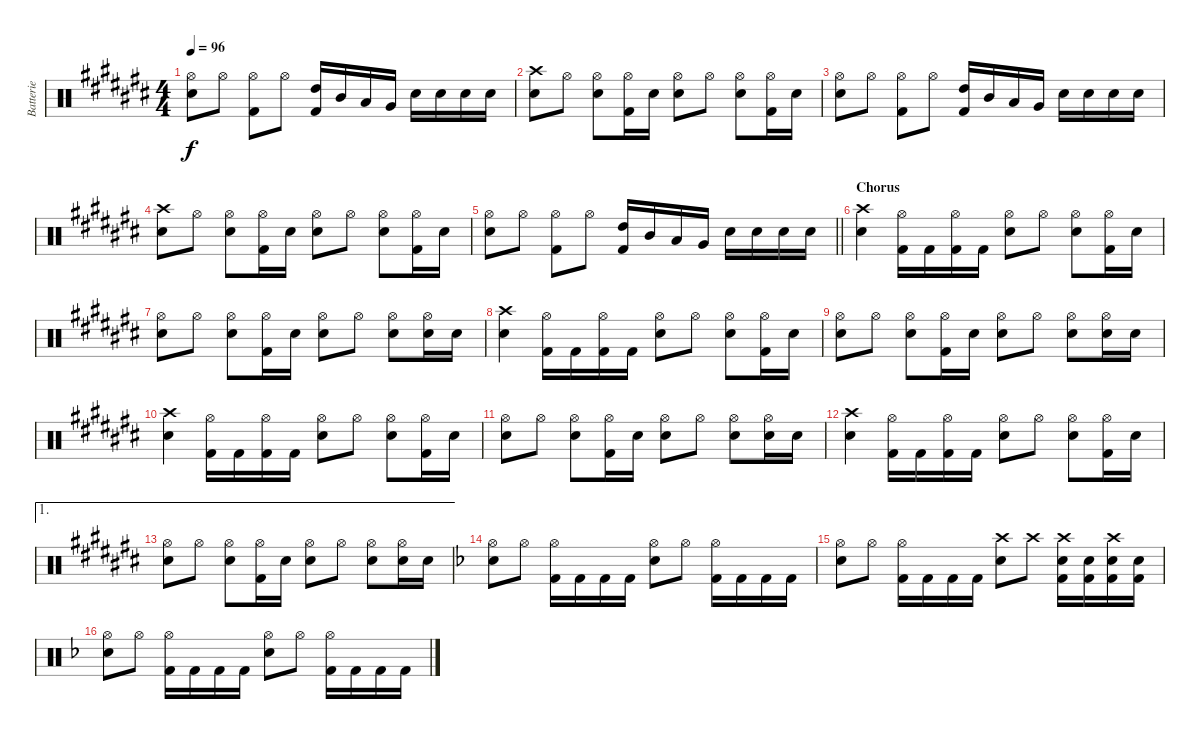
\track ("Batterie" "Batterie") {instrument percussion}
\staff {score}
\articulation defaults
\ts (4 4)
\tempo 96
\clef neutral
\ks c#
("Hi-Hat (open)" "Snare (hit) 2").8{dy f} "Hi-Hat (open)".8 ("Hi-Hat (open)" "Kick (hit) 2").8 "Hi-Hat (open)".8 ("High Tom (hit)" "Kick (hit) 2").16 "Mid Tom (hit)".16 "Low Tom (hit)".16 "Very Low Tom (hit)".16 "Snare (hit) 2".16 "Snare (hit) 2".16 "Snare (hit) 2".16 "Snare (hit) 2".16 |
("Crash high (hit)" "Snare (hit) 2").8 "Hi-Hat (open)".8 ("Hi-Hat (open)" "Snare (hit) 2").8 ("Hi-Hat (open)" "Kick (hit) 2").16 "Snare (hit) 2".16 ("Hi-Hat (open)" "Snare (hit) 2").8 "Hi-Hat (open)".8 ("Hi-Hat (open)" "Snare (hit) 2").8 ("Hi-Hat (open)" "Kick (hit) 2").16 "Snare (hit) 2".16 |
("Hi-Hat (open)" "Snare (hit) 2").8 "Hi-Hat (open)".8 ("Hi-Hat (open)" "Kick (hit) 2").8 "Hi-Hat (open)".8 ("High Tom (hit)" "Kick (hit) 2").16 "Mid Tom (hit)".16 "Low Tom (hit)".16 "Very Low Tom (hit)".16 "Snare (hit) 2".16 "Snare (hit) 2".16 "Snare (hit) 2".16 "Snare (hit) 2".16 |
("Crash high (hit)" "Snare (hit) 2").8 "Hi-Hat (open)".8 ("Hi-Hat (open)" "Snare (hit) 2").8 ("Hi-Hat (open)" "Kick (hit) 2").16 "Snare (hit) 2".16 ("Hi-Hat (open)" "Snare (hit) 2").8 "Hi-Hat (open)".8 ("Hi-Hat (open)" "Snare (hit) 2").8 ("Hi-Hat (open)" "Kick (hit) 2").16 "Snare (hit) 2".16 |
\barLineRight lightlight
("Hi-Hat (open)" "Snare (hit) 2").8 "Hi-Hat (open)".8 ("Hi-Hat (open)" "Kick (hit) 2").8 "Hi-Hat (open)".8 ("High Tom (hit)" "Kick (hit) 2").16 "Mid Tom (hit)".16 "Low Tom (hit)".16 "Very Low Tom (hit)".16 "Snare (hit) 2".16 "Snare (hit) 2".16 "Snare (hit) 2".16 "Snare (hit) 2".16 |
\section ("" "Chorus")
("Crash high (hit)" "Snare (hit) 2").4 ("Hi-Hat (open)" "Kick (hit) 2").16 "Kick (hit) 2".16 ("Hi-Hat (open)" "Kick (hit) 2").16 "Kick (hit) 2".16 ("Hi-Hat (open)" "Snare (hit) 2").8 "Hi-Hat (open)".8 ("Hi-Hat (open)" "Snare (hit) 2").8 ("Hi-Hat (open)" "Kick (hit) 2").16 "Snare (hit) 2".16 |
("Hi-Hat (open)" "Snare (hit) 2").8 "Hi-Hat (open)".8 ("Hi-Hat (open)" "Snare (hit) 2").8 ("Hi-Hat (open)" "Kick (hit) 2").16 "Snare (hit) 2".16 ("Hi-Hat (open)" "Snare (hit) 2").8 "Hi-Hat (open)".8 ("Hi-Hat (open)" "Snare (hit) 2").8 ("Hi-Hat (open)" "Snare (hit) 2").16 "Snare (hit) 2".16 |
("Crash high (hit)" "Snare (hit) 2").4 ("Hi-Hat (open)" "Kick (hit) 2").16 "Kick (hit) 2".16 ("Hi-Hat (open)" "Kick (hit) 2").16 "Kick (hit) 2".16 ("Hi-Hat (open)" "Snare (hit) 2").8 "Hi-Hat (open)".8 ("Hi-Hat (open)" "Snare (hit) 2").8 ("Hi-Hat (open)" "Kick (hit) 2").16 "Snare (hit) 2".16 |
("Hi-Hat (open)" "Snare (hit) 2").8 "Hi-Hat (open)".8 ("Hi-Hat (open)" "Snare (hit) 2").8 ("Hi-Hat (open)" "Kick (hit) 2").16 "Snare (hit) 2".16 ("Hi-Hat (open)" "Snare (hit) 2").8 "Hi-Hat (open)".8 ("Hi-Hat (open)" "Snare (hit) 2").8 ("Hi-Hat (open)" "Snare (hit) 2").16 "Snare (hit) 2".16 |
("Crash high (hit)" "Snare (hit) 2").4 ("Hi-Hat (open)" "Kick (hit) 2").16 "Kick (hit) 2".16 ("Hi-Hat (open)" "Kick (hit) 2").16 "Kick (hit) 2".16 ("Hi-Hat (open)" "Snare (hit) 2").8 "Hi-Hat (open)".8 ("Hi-Hat (open)" "Snare (hit) 2").8 ("Hi-Hat (open)" "Kick (hit) 2").16 "Snare (hit) 2".16 |
("Hi-Hat (open)" "Snare (hit) 2").8 "Hi-Hat (open)".8 ("Hi-Hat (open)" "Snare (hit) 2").8 ("Hi-Hat (open)" "Kick (hit) 2").16 "Snare (hit) 2".16 ("Hi-Hat (open)" "Snare (hit) 2").8 "Hi-Hat (open)".8 ("Hi-Hat (open)" "Snare (hit) 2").8 ("Hi-Hat (open)" "Snare (hit) 2").16 "Snare (hit) 2".16 |
("Crash high (hit)" "Snare (hit) 2").4 ("Hi-Hat (open)" "Kick (hit) 2").16 "Kick (hit) 2".16 ("Hi-Hat (open)" "Kick (hit) 2").16 "Kick (hit) 2".16 ("Hi-Hat (open)" "Snare (hit) 2").8 "Hi-Hat (open)".8 ("Hi-Hat (open)" "Snare (hit) 2").8 ("Hi-Hat (open)" "Kick (hit) 2").16 "Snare (hit) 2".16 |
\ae 1
("Hi-Hat (open)" "Snare (hit) 2").8 "Hi-Hat (open)".8 ("Hi-Hat (open)" "Snare (hit) 2").8 ("Hi-Hat (open)" "Kick (hit) 2").16 "Snare (hit) 2".16 ("Hi-Hat (open)" "Snare (hit) 2").8 "Hi-Hat (open)".8 ("Hi-Hat (open)" "Snare (hit) 2").8 ("Hi-Hat (open)" "Snare (hit) 2").16 "Snare (hit) 2".16 |
\ks f
("Hi-Hat (open)" "Snare (hit) 2").8 "Hi-Hat (open)".8 ("Hi-Hat (open)" "Kick (hit) 2").16 "Kick (hit) 2".16 "Kick (hit) 2".16 "Kick (hit) 2".16 ("Hi-Hat (open)" "Snare (hit) 2").8 "Hi-Hat (open)".8 ("Hi-Hat (open)" "Kick (hit) 2").16 "Kick (hit) 2".16 "Kick (hit) 2".16 "Kick (hit) 2".16 |
("Hi-Hat (open)" "Snare (hit) 2").8 "Hi-Hat (open)".8 ("Hi-Hat (open)" "Kick (hit) 2").16 "Kick (hit) 2".16 "Kick (hit) 2".16 "Kick (hit) 2".16 ("Crash high (hit)" "Snare (hit) 2").8 "Crash high (hit)".8 ("Crash high (hit)" "Snare (hit) 2" "Kick (hit) 2").16 ("Snare (hit) 2" "Kick (hit) 2").16 ("Crash high (hit)" "Snare (hit) 2" "Kick (hit) 2").16 ("Snare (hit) 2" "Kick (hit) 2").16 |
("Hi-Hat (open)" "Snare (hit) 2").8 "Hi-Hat (open)".8 ("Hi-Hat (open)" "Kick (hit) 2").16 "Kick (hit) 2".16 "Kick (hit) 2".16 "Kick (hit) 2".16 ("Hi-Hat (open)" "Snare (hit) 2").8 "Hi-Hat (open)".8 ("Hi-Hat (open)" "Kick (hit) 2").16 "Kick (hit) 2".16 "Kick (hit) 2".16 "Kick (hit) 2".16
